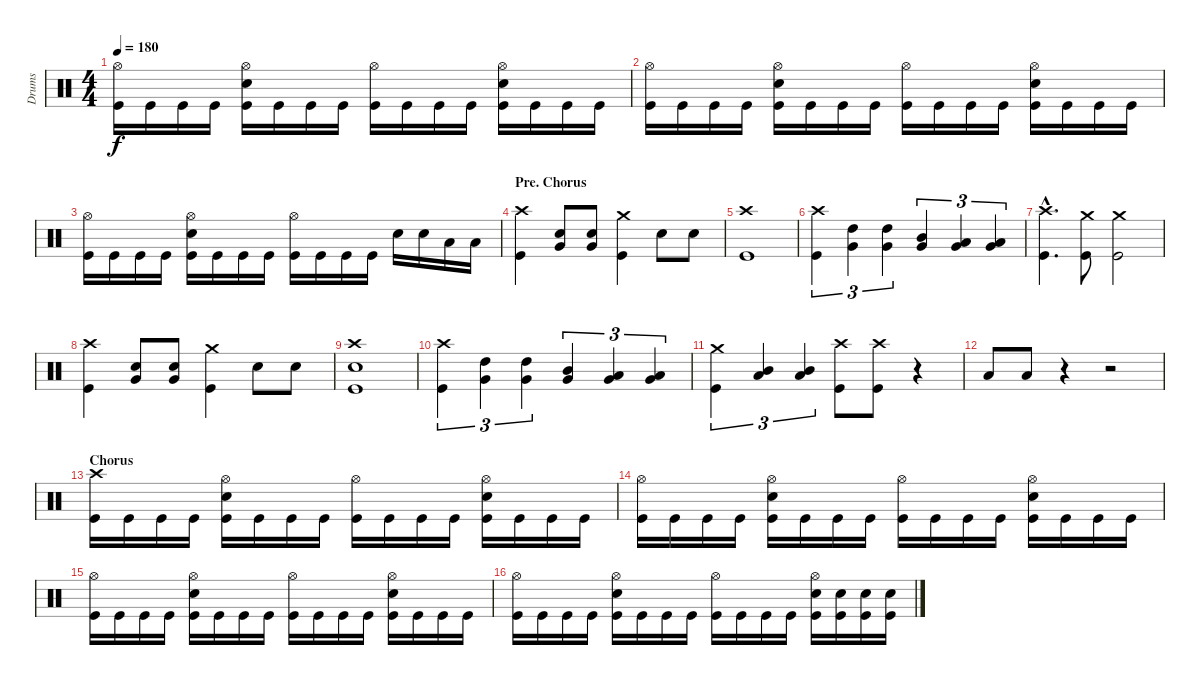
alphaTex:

\track ("Drums" "Drums") {instrument percussion}
\staff {score}
\articulation defaults
\ts (4 4)
\tempo 180
\clef neutral
\ks c
("Hi-Hat (open)" "Kick (hit)").16{dy f} "Kick (hit)".16 "Kick (hit)".16 "Kick (hit)".16 ("Hi-Hat (open)" "Electric Snare (hit)" "Kick (hit)").16 "Kick (hit)".16 "Kick (hit)".16 "Kick (hit)".16 ("Hi-Hat (open)" "Kick (hit)").16 "Kick (hit)".16 "Kick (hit)".16 "Kick (hit)".16 ("Hi-Hat (open)" "Electric Snare (hit)" "Kick (hit)").16 "Kick (hit)".16 "Kick (hit)".16 "Kick (hit)".16 |
("Hi-Hat (open)" "Kick (hit)").16 "Kick (hit)".16 "Kick (hit)".16 "Kick (hit)".16 ("Hi-Hat (open)" "Electric Snare (hit)" "Kick (hit)").16 "Kick (hit)".16 "Kick (hit)".16 "Kick (hit)".16 ("Hi-Hat (open)" "Kick (hit)").16 "Kick (hit)".16 "Kick (hit)".16 "Kick (hit)".16 ("Hi-Hat (open)" "Electric Snare (hit)" "Kick (hit)").16 "Kick (hit)".16 "Kick (hit)".16 "Kick (hit)".16 |
("Hi-Hat (open)" "Kick (hit)").16 "Kick (hit)".16 "Kick (hit)".16 "Kick (hit)".16 ("Hi-Hat (open)" "Electric Snare (hit)" "Kick (hit)").16 "Kick (hit)".16 "Kick (hit)".16 "Kick (hit)".16 ("Hi-Hat (open)" "Kick (hit)").16 "Kick (hit)".16 "Kick (hit)".16 "Kick (hit)".16 "Electric Snare (hit)".16 "Electric Snare (hit)".16 "Low Tom (hit)".16 "Low Tom (hit)".16 |
\section ("" "Pre. Chorus")
("Crash high (hit)" "Kick (hit)").4 ("Very Low Tom (hit)" "Electric Snare (hit)").8 ("Very Low Tom (hit)" "Electric Snare (hit)").8 ("Crash medium (hit)" "Kick (hit)").4 "Electric Snare (hit)".8 "Electric Snare (hit)".8 |
("Crash high (hit)" "Kick (hit)").1 |
("Crash high (hit)" "Kick (hit)").4{tu (3 2)} ("Very Low Tom (hit)" "High Tom (hit)").4{tu (3 2)} ("Very Low Tom (hit)" "High Tom (hit)").4{tu (3 2)} ("Very Low Tom (hit)" "Mid Tom (hit)").4{tu (3 2)} ("Very Low Tom (hit)" "Low Tom (hit)").4{tu (3 2)} ("Low Floor Tom (hit)" "Very Low Tom (hit)").4{tu (3 2)} |
("Crash high (hit)"{hac} "Kick (hit)"{hac}).4{d} ("Crash medium (hit)" "Kick (hit)").8 ("Crash medium (hit)" "Kick (hit)").2 |
("Crash high (hit)" "Kick (hit)").4 ("Very Low Tom (hit)" "Electric Snare (hit)").8 ("Very Low Tom (hit)" "Electric Snare (hit)").8 ("Crash medium (hit)" "Kick (hit)").4 "Electric Snare (hit)".8 "Electric Snare (hit)".8 |
("Crash high (hit)" "Electric Snare (hit)" "Kick (hit)").1 |
("Crash high (hit)" "Kick (hit)").4{tu (3 2)} ("Very Low Tom (hit)" "High Tom (hit)").4{tu (3 2)} ("Very Low Tom (hit)" "High Tom (hit)").4{tu (3 2)} ("Very Low Tom (hit)" "Mid Tom (hit)").4{tu (3 2)} ("Very Low Tom (hit)" "Low Tom (hit)").4{tu (3 2)} ("Very Low Tom (hit)" "Low Tom (hit)").4{tu (3 2)} |
("Crash medium (hit)" "Kick (hit)").4{tu (3 2)} ("Low Tom (hit)" "Mid Tom (hit)").4{tu (3 2)} ("Low Tom (hit)" "Mid Tom (hit)").4{tu (3 2)} ("Crash high (hit)" "Kick (hit)").8 ("Crash high (hit)" "Kick (hit)").8 r.4 |
"Low Tom (hit)".8 "Low Tom (hit)".8 r.4 r.2 |
\section ("" "Chorus")
("Crash high (hit)" "Kick (hit)").16 "Kick (hit)".16 "Kick (hit)".16 "Kick (hit)".16 ("Hi-Hat (open)" "Electric Snare (hit)" "Kick (hit)").16 "Kick (hit)".16 "Kick (hit)".16 "Kick (hit)".16 ("Hi-Hat (open)" "Kick (hit)").16 "Kick (hit)".16 "Kick (hit)".16 "Kick (hit)".16 ("Hi-Hat (open)" "Electric Snare (hit)" "Kick (hit)").16 "Kick (hit)".16 "Kick (hit)".16 "Kick (hit)".16 |
("Hi-Hat (open)" "Kick (hit)").16 "Kick (hit)".16 "Kick (hit)".16 "Kick (hit)".16 ("Hi-Hat (open)" "Electric Snare (hit)" "Kick (hit)").16 "Kick (hit)".16 "Kick (hit)".16 "Kick (hit)".16 ("Hi-Hat (open)" "Kick (hit)").16 "Kick (hit)".16 "Kick (hit)".16 "Kick (hit)".16 ("Hi-Hat (open)" "Electric Snare (hit)" "Kick (hit)").16 "Kick (hit)".16 "Kick (hit)".16 "Kick (hit)".16 |
("Hi-Hat (open)" "Kick (hit)").16 "Kick (hit)".16 "Kick (hit)".16 "Kick (hit)".16 ("Hi-Hat (open)" "Electric Snare (hit)" "Kick (hit)").16 "Kick (hit)".16 "Kick (hit)".16 "Kick (hit)".16 ("Hi-Hat (open)" "Kick (hit)").16 "Kick (hit)".16 "Kick (hit)".16 "Kick (hit)".16 ("Hi-Hat (open)" "Electric Snare (hit)" "Kick (hit)").16 "Kick (hit)".16 "Kick (hit)".16 "Kick (hit)".16 |
("Hi-Hat (open)" "Kick (hit)").16 "Kick (hit)".16 "Kick (hit)".16 "Kick (hit)".16 ("Hi-Hat (open)" "Electric Snare (hit)" "Kick (hit)").16 "Kick (hit)".16 "Kick (hit)".16 "Kick (hit)".16 ("Hi-Hat (open)" "Kick (hit)").16 "Kick (hit)".16 "Kick (hit)".16 "Kick (hit)".16 ("Hi-Hat (open)" "Electric Snare (hit)" "Kick (hit)").16 ("Electric Snare (hit)" "Kick (hit)").16 ("Electric Snare (hit)" "Kick (hit)").16 ("Electric Snare (hit)" "Kick (hit)").16
